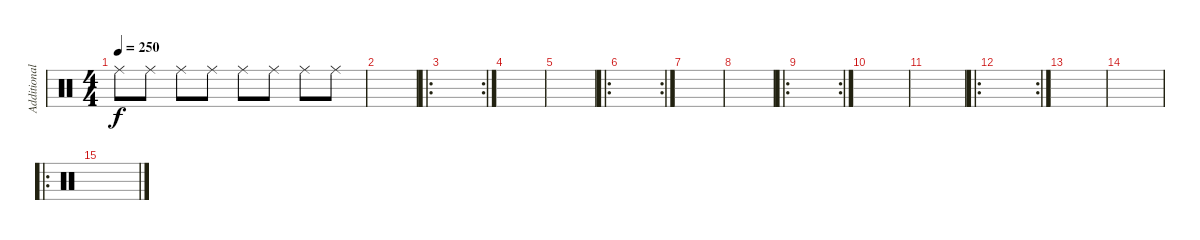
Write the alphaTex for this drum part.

\track ("Additional drums" "Additional") {instrument percussion}
\staff {score}
\articulation defaults
\ts (4 4)
\tempo 250
\clef neutral
\ks c "Ride (middle)".8{dy f} "Ride (middle)".8 "Ride (middle)".8 "Ride (middle)".8 "Ride (middle)".8 "Ride (middle)".8 "Ride (middle)".8 "Ride (middle)".8
|
|
\ro
\rc 2
|
|
|
\ro
\rc 2
|
|
|
\ro
\rc 2
|
|
|
\ro
\rc 2
|
|
|
\ro
